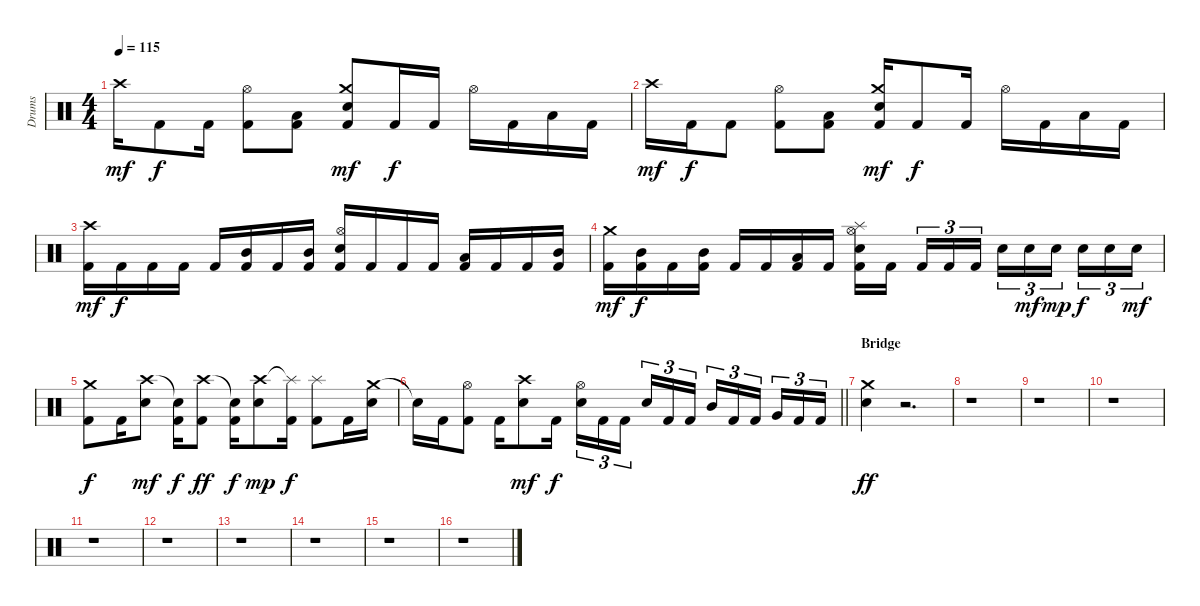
\track ("Drums" "Drums") {instrument percussion}
\staff {score}
\articulation defaults
\ts (4 4)
\tempo 115
\clef neutral
\ks c "Crash high (hit)".16{dy mf} "Kick (hit) 2".8{dy f} "Kick (hit) 2".16
("Hi-Hat (open)" "Kick (hit) 2").8 ("Low Tom (hit)" "Kick (hit) 2").8 ("Crash medium (hit)" "Snare (hit) 2" "Kick (hit) 2").8{dy mf} "Kick (hit) 2".16{dy f} "Kick (hit) 2".16 "Hi-Hat (open)".16 "Kick (hit) 2".16 "Low Tom (hit)".16 "Kick (hit) 2".16 |
"Crash high (hit)".16{dy mf} "Kick (hit) 2".16{dy f} "Kick (hit) 2".8 ("Hi-Hat (open)" "Kick (hit) 2").8 ("Low Tom (hit)" "Kick (hit) 2").8 ("Crash medium (hit)" "Snare (hit) 2" "Kick (hit) 2").16{dy mf} "Kick (hit) 2".8{dy f} "Kick (hit) 2".16 "Hi-Hat (open)".16 "Kick (hit) 2".16 "Low Tom (hit)".16 "Kick (hit) 2".16 |
("Crash high (hit)" "Kick (hit) 2").16{dy mf} "Kick (hit) 2".16{dy f} "Kick (hit) 2".16 "Kick (hit) 2".16 "Kick (hit) 2".16 ("Mid Tom (hit)" "Kick (hit) 2").16 "Kick (hit) 2".16 ("Mid Tom (hit)" "Kick (hit) 2").16 ("Hi-Hat (open)" "Snare (hit) 2" "Kick (hit) 2").16 "Kick (hit) 2".16 "Kick (hit) 2".16 "Kick (hit) 2".16 ("Low Tom (hit)" "Kick (hit) 2").16 "Kick (hit) 2".16 "Kick (hit) 2".16 ("Mid Tom (hit)" "Kick (hit) 2").16 |
("Crash medium (hit)" "Kick (hit) 2").16{dy mf} ("Mid Tom (hit)" "Kick (hit) 2").16{dy f} "Kick (hit) 2".16 ("Mid Tom (hit)" "Kick (hit) 2").16 "Kick (hit) 2".16 "Kick (hit) 2".16 ("Low Tom (hit)" "Kick (hit) 2").16 "Kick (hit) 2".16 ("Splash (hit)" "Hi-Hat (open)" "Snare (hit) 2" "Kick (hit) 2").16 "Kick (hit) 2".16{beam splitsecondary} "Kick (hit) 2".16{tu (3 2)} "Kick (hit) 2".16{tu (3 2)} "Kick (hit) 2".16{tu (3 2)} "Snare (hit) 2".16{tu (3 2)} "Snare (hit) 2".16{tu (3 2) dy mf} "Snare (hit) 2".16{tu (3 2) dy mp beam splitsecondary} "Snare (hit) 2".16{tu (3 2) dy f} "Snare (hit) 2".16{tu (3 2)} "Snare (hit) 2".16{tu (3 2) dy mf} |
("Crash medium (hit)" "Kick (hit) 2").8{dy f} "Kick (hit) 2".16 ("Crash high (hit)" "Snare (hit) 2").8{dy mf} ("Snare (hit)"{t} "Kick (hit) 2").16{dy f} ("Crash high (hit)" "Kick (hit) 2").8{dy ff} ("Snare (hit)"{t} "Kick (hit) 2").16{dy f} ("Crash high (hit)" "Snare (hit) 2").8{dy mp} ("Splash (hit)"{t} "Kick (hit) 2").16{dy f} ("Splash (hit)" "Kick (hit) 2").8 "Kick (hit) 2".16 ("Crash medium (hit)" "Snare (hit) 2").16 |
\barLineRight lightlight "Snare (hit)"{t}.16 "Kick (hit) 2".16
("Hi-Hat (open)" "Kick (hit) 2").8 "Kick (hit) 2".16 ("Crash high (hit)" "Snare (hit) 2").8{dy mf} "Kick (hit) 2".16{dy f} ("Hi-Hat (open)" "Snare (hit) 2").16{tu (3 2)} "Kick (hit) 2".16{tu (3 2)} "Kick (hit) 2".16{tu (3 2) beam splitsecondary} "Snare (hit) 2".16{tu (3 2)} "Kick (hit) 2".16{tu (3 2)} "Kick (hit) 2".16{tu (3 2)} "Mid Tom (hit)".16{tu (3 2)} "Kick (hit) 2".16{tu (3 2)} "Kick (hit) 2".16{tu (3 2) beam splitsecondary} "Very Low Tom (hit)".16{tu (3 2)} "Kick (hit) 2".16{tu (3 2)} "Kick (hit) 2".16{tu (3 2)} |
\section ("" "Bridge")
("Crash medium (hit)" "Snare (hit) 2").4{dy ff} r.2{d} |
r.1 |
r.1 |
r.1 |
r.1 |
r.1 |
r.1 |
r.1 |
r.1 |
r.1
